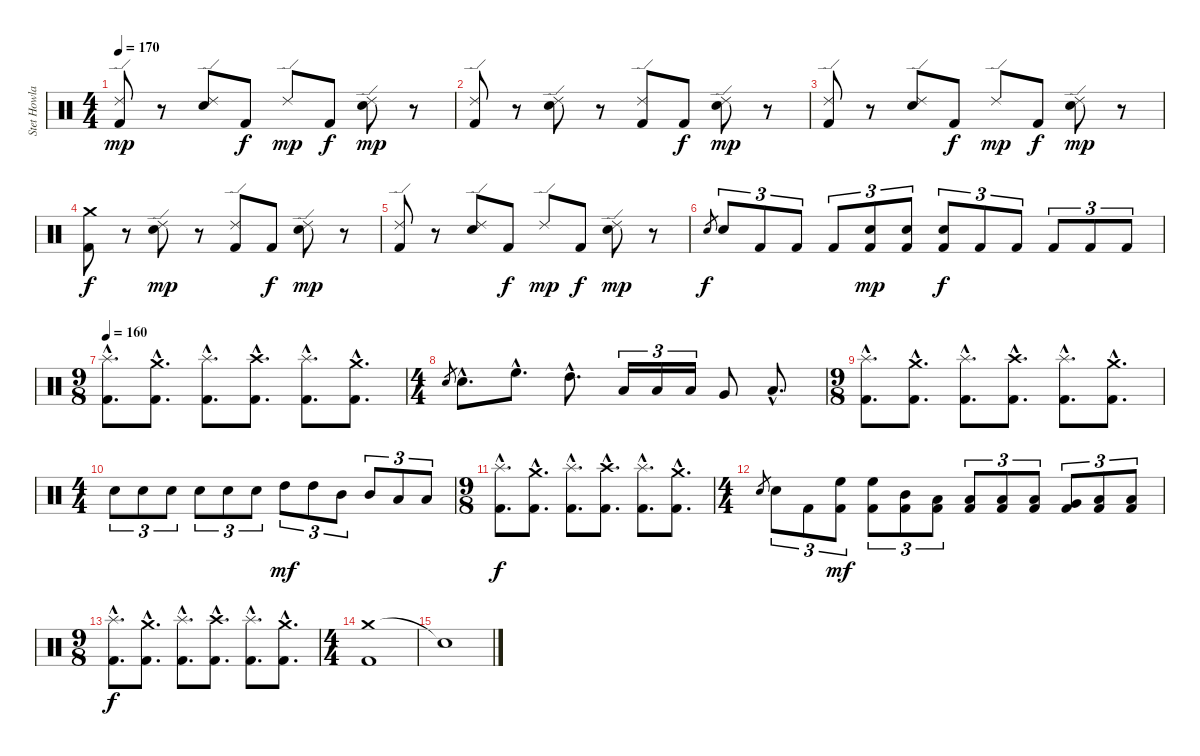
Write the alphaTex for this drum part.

\track ("Stet Howland" "Stet Howla") {instrument percussion}
\staff {score}
\articulation defaults
\ts (4 4)
\tempo 170
\clef neutral
\ks c
("Ride (edge) 2" "Kick (hit) 2").8{dy mp} r.8 ("Ride (edge) 2" "Electric Snare (hit)").8 "Kick (hit) 2".8{dy f} "Ride (edge) 2".8{dy mp} "Kick (hit) 2".8{dy f} ("Ride (edge) 2" "Electric Snare (hit)").8{dy mp} r.8 |
("Ride (edge) 2" "Kick (hit) 2").8 r.8 ("Ride (edge) 2" "Electric Snare (hit)").8 r.8 ("Ride (edge) 2" "Kick (hit) 2").8 "Kick (hit) 2".8{dy f} ("Ride (edge) 2" "Electric Snare (hit)").8{dy mp} r.8 |
("Ride (edge) 2" "Kick (hit) 2").8 r.8 ("Ride (edge) 2" "Electric Snare (hit)").8 "Kick (hit) 2".8{dy f} "Ride (edge) 2".8{dy mp} "Kick (hit) 2".8{dy f} ("Ride (edge) 2" "Electric Snare (hit)").8{dy mp} r.8 |
("Crash medium (hit)" "Kick (hit) 2").8{dy f} r.8 ("Ride (edge) 2" "Electric Snare (hit)").8{dy mp} r.8 ("Ride (edge) 2" "Kick (hit) 2").8 "Kick (hit) 2".8{dy f} ("Ride (edge) 2" "Electric Snare (hit)").8{dy mp} r.8 |
("Ride (edge) 2" "Kick (hit) 2").8 r.8 ("Ride (edge) 2" "Electric Snare (hit)").8 "Kick (hit) 2".8{dy f} "Ride (edge) 2".8{dy mp} "Kick (hit) 2".8{dy f} ("Ride (edge) 2" "Electric Snare (hit)").8{dy mp} r.8 |
"Electric Snare (hit)".8{gr dy f} "Electric Snare (hit)".8{tu (3 2)} "Kick (hit) 2".8{tu (3 2)} "Kick (hit) 2".8{tu (3 2)} "Kick (hit) 2".8{tu (3 2)} ("Electric Snare (hit)" "Kick (hit) 2").8{tu (3 2) dy mp} ("Electric Snare (hit)" "Kick (hit) 2").8{tu (3 2)} ("Electric Snare (hit)" "Kick (hit) 2").8{tu (3 2) dy f} "Kick (hit) 2".8{tu (3 2)} "Kick (hit) 2".8{tu (3 2)} "Kick (hit) 2".8{tu (3 2)} "Kick (hit) 2".8{tu (3 2)} "Kick (hit) 2".8{tu (3 2)} |
\ts (9 8)
\tempo 160
("Splash (hit)"{hac} "Kick (hit) 2"{hac}).8{d} ("Crash medium (hit)"{hac} "Kick (hit) 2"{hac}).8{d} ("Splash (hit)"{hac} "Kick (hit) 2"{hac}).8{d} ("Crash high (hit)"{hac} "Kick (hit) 2"{hac}).8{d} ("Splash (hit)"{hac} "Kick (hit) 2"{hac}).8{d} ("Crash medium (hit)"{hac} "Kick (hit) 2"{hac}).8{d} |
\ts (4 4)
"Electric Snare (hit)".8{gr} "Electric Snare (hit)"{hac}.8{d} "High Floor Tom (hit)"{hac}.8{d} "High Tom (hit)"{hac}.8{d} "Low Tom (hit)".16{tu (3 2)} "Low Tom (hit)".16{tu (3 2)} "Low Tom (hit)".16{tu (3 2)} "Very Low Tom (hit)".8 "Low Floor Tom (hit)"{hac}.8{d} |
\ts (9 8)
("Splash (hit)"{hac} "Kick (hit) 2"{hac}).8{d} ("Crash medium (hit)"{hac} "Kick (hit) 2"{hac}).8{d} ("Splash (hit)"{hac} "Kick (hit) 2"{hac}).8{d} ("Crash high (hit)"{hac} "Kick (hit) 2"{hac}).8{d} ("Splash (hit)"{hac} "Kick (hit) 2"{hac}).8{d} ("Crash medium (hit)"{hac} "Kick (hit) 2"{hac}).8{d} |
\ts (4 4)
"Electric Snare (hit)".8{tu (3 2)} "Electric Snare (hit)".8{tu (3 2)} "Electric Snare (hit)".8{tu (3 2)} "Electric Snare (hit)".8{tu (3 2)} "Electric Snare (hit)".8{tu (3 2)} "Electric Snare (hit)".8{tu (3 2)} "High Tom (hit)".8{tu (3 2) dy mf} "High Tom (hit)".8{tu (3 2)} "Mid Tom (hit)".8{tu (3 2)} "Mid Tom (hit)".8{tu (3 2)} "Low Tom (hit)".8{tu (3 2)} "Low Tom (hit)".8{tu (3 2)} |
\ts (9 8)
("Splash (hit)"{hac} "Kick (hit) 2"{hac}).8{d dy f} ("Crash medium (hit)"{hac} "Kick (hit) 2"{hac}).8{d} ("Splash (hit)"{hac} "Kick (hit) 2"{hac}).8{d} ("Crash high (hit)"{hac} "Kick (hit) 2"{hac}).8{d} ("Splash (hit)"{hac} "Kick (hit) 2"{hac}).8{d} ("Crash medium (hit)"{hac} "Kick (hit) 2"{hac}).8{d} |
\ts (4 4)
"Electric Snare (hit)".8{gr} "Electric Snare (hit)".8{tu (3 2)} "Kick (hit) 2".8{tu (3 2)} ("High Floor Tom (hit)" "Kick (hit) 2").8{tu (3 2) dy mf} ("High Floor Tom (hit)" "Kick (hit) 2").8{tu (3 2)} ("Mid Tom (hit)" "Kick (hit) 2").8{tu (3 2)} ("Low Tom (hit)" "Kick (hit) 2").8{tu (3 2)} ("Low Tom (hit)" "Kick (hit) 2").8{tu (3 2)} ("Low Tom (hit)" "Kick (hit) 2").8{tu (3 2)} ("Low Tom (hit)" "Kick (hit) 2").8{tu (3 2)} ("Very Low Tom (hit)" "Kick (hit) 2").8{tu (3 2)} ("Low Floor Tom (hit)" "Kick (hit) 2").8{tu (3 2)} ("Low Floor Tom (hit)" "Kick (hit) 2").8{tu (3 2)} |
\ts (9 8)
("Splash (hit)"{hac} "Kick (hit) 2"{hac}).8{d dy f} ("Crash medium (hit)"{hac} "Kick (hit) 2"{hac}).8{d} ("Splash (hit)"{hac} "Kick (hit) 2"{hac}).8{d} ("Crash high (hit)"{hac} "Kick (hit) 2"{hac}).8{d} ("Splash (hit)"{hac} "Kick (hit) 2"{hac}).8{d} ("Crash medium (hit)"{hac} "Kick (hit) 2"{hac}).8{d} |
\ts (4 4)
("Crash medium (hit)" "Kick (hit) 2").1 |
"Snare (hit)"{t}.1
